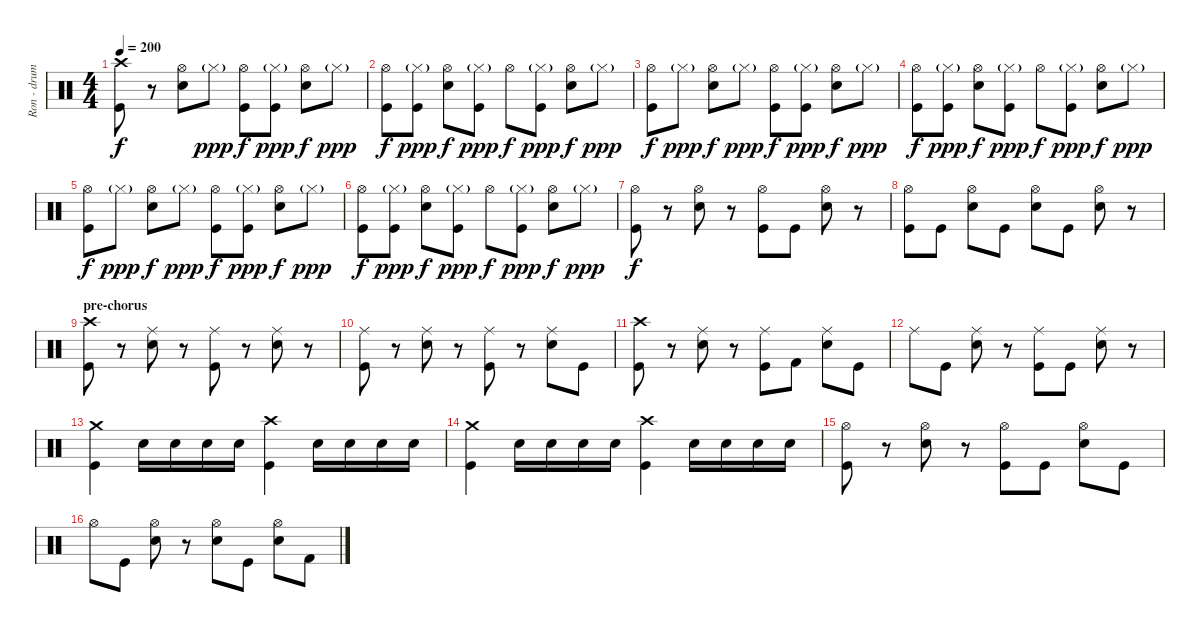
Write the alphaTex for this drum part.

\track ("Ron - drums" "Ron - drum") {instrument percussion}
\staff {score}
\articulation defaults
\ts (4 4)
\tempo 200
\clef neutral
\ks c
("Crash high (hit)" "Kick (hit)").8{dy f} r.8 ("Hi-Hat (open)" "Snare (hit) 2").8 "Hi-Hat (closed)"{g}.8{dy ppp} ("Hi-Hat (open)" "Kick (hit)").8{dy f} ("Hi-Hat (closed)"{g} "Kick (hit)").8{dy ppp} ("Hi-Hat (open)" "Snare (hit) 2").8{dy f} "Hi-Hat (closed)"{g}.8{dy ppp} |
("Hi-Hat (open)" "Kick (hit)").8{dy f} ("Hi-Hat (closed)"{g} "Kick (hit)").8{dy ppp} ("Hi-Hat (open)" "Snare (hit) 2").8{dy f} ("Hi-Hat (closed)"{g} "Kick (hit)").8{dy ppp} "Hi-Hat (open)".8{dy f} ("Hi-Hat (closed)"{g} "Kick (hit)").8{dy ppp} ("Hi-Hat (open)" "Snare (hit) 2").8{dy f} "Hi-Hat (closed)"{g}.8{dy ppp} |
("Hi-Hat (open)" "Kick (hit)").8{dy f} "Hi-Hat (closed)"{g}.8{dy ppp} ("Hi-Hat (open)" "Snare (hit) 2").8{dy f} "Hi-Hat (closed)"{g}.8{dy ppp} ("Hi-Hat (open)" "Kick (hit)").8{dy f} ("Hi-Hat (closed)"{g} "Kick (hit)").8{dy ppp} ("Hi-Hat (open)" "Snare (hit) 2").8{dy f} "Hi-Hat (closed)"{g}.8{dy ppp} |
("Hi-Hat (open)" "Kick (hit)").8{dy f} ("Hi-Hat (closed)"{g} "Kick (hit)").8{dy ppp} ("Hi-Hat (open)" "Snare (hit) 2").8{dy f} ("Hi-Hat (closed)"{g} "Kick (hit)").8{dy ppp} "Hi-Hat (open)".8{dy f} ("Hi-Hat (closed)"{g} "Kick (hit)").8{dy ppp} ("Hi-Hat (open)" "Snare (hit) 2").8{dy f} "Hi-Hat (closed)"{g}.8{dy ppp} |
("Hi-Hat (open)" "Kick (hit)").8{dy f} "Hi-Hat (closed)"{g}.8{dy ppp} ("Hi-Hat (open)" "Snare (hit) 2").8{dy f} "Hi-Hat (closed)"{g}.8{dy ppp} ("Hi-Hat (open)" "Kick (hit)").8{dy f} ("Hi-Hat (closed)"{g} "Kick (hit)").8{dy ppp} ("Hi-Hat (open)" "Snare (hit) 2").8{dy f} "Hi-Hat (closed)"{g}.8{dy ppp} |
("Hi-Hat (open)" "Kick (hit)").8{dy f} ("Hi-Hat (closed)"{g} "Kick (hit)").8{dy ppp} ("Hi-Hat (open)" "Snare (hit) 2").8{dy f} ("Hi-Hat (closed)"{g} "Kick (hit)").8{dy ppp} "Hi-Hat (open)".8{dy f} ("Hi-Hat (closed)"{g} "Kick (hit)").8{dy ppp} ("Hi-Hat (open)" "Snare (hit) 2").8{dy f} "Hi-Hat (closed)"{g}.8{dy ppp} |
("Hi-Hat (open)" "Kick (hit)").8{dy f} r.8 ("Hi-Hat (open)" "Snare (hit) 2").8 r.8 ("Hi-Hat (open)" "Kick (hit)").8 "Kick (hit)".8 ("Hi-Hat (open)" "Snare (hit) 2").8 r.8 |
("Hi-Hat (open)" "Kick (hit)").8 "Kick (hit)".8 ("Hi-Hat (open)" "Snare (hit) 2").8 "Kick (hit)".8 ("Hi-Hat (open)" "Snare (hit) 2").8 "Kick (hit)".8 ("Hi-Hat (open)" "Snare (hit) 2").8 r.8 |
\section ("" "pre-chorus")
("Crash high (hit)" "Kick (hit)").8 r.8 ("Ride (middle)" "Snare (hit) 2").8 r.8 ("Ride (middle)" "Kick (hit)").8 r.8 ("Ride (middle)" "Snare (hit) 2").8 r.8 |
("Ride (middle)" "Kick (hit)").8 r.8 ("Ride (middle)" "Snare (hit) 2").8 r.8 ("Ride (middle)" "Kick (hit)").8 r.8 ("Ride (middle)" "Snare (hit) 2").8 "Kick (hit)".8 |
("Crash high (hit)" "Kick (hit)").8 r.8 ("Ride (middle)" "Snare (hit) 2").8 r.8 ("Ride (middle)" "Kick (hit)").8 "Kick (hit) 2".8 ("Ride (middle)" "Snare (hit) 2").8 "Kick (hit)".8 |
"Ride (middle)".8 "Kick (hit)".8 ("Ride (middle)" "Snare (hit) 2").8 r.8 ("Ride (middle)" "Kick (hit)").8 "Kick (hit)".8 ("Ride (middle)" "Snare (hit) 2").8 r.8 |
("Crash medium (hit)" "Kick (hit)").4 "Snare (hit) 2".16 "Snare (hit) 2".16 "Snare (hit) 2".16 "Snare (hit) 2".16 ("Crash high (hit)" "Kick (hit)").4 "Snare (hit) 2".16 "Snare (hit) 2".16 "Snare (hit) 2".16 "Snare (hit) 2".16 |
("Crash medium (hit)" "Kick (hit)").4 "Snare (hit) 2".16 "Snare (hit) 2".16 "Snare (hit) 2".16 "Snare (hit) 2".16 ("Crash high (hit)" "Kick (hit)").4 "Snare (hit) 2".16 "Snare (hit) 2".16 "Snare (hit) 2".16 "Snare (hit) 2".16 |
("Hi-Hat (open)" "Kick (hit)").8 r.8 ("Hi-Hat (open)" "Snare (hit) 2").8 r.8 ("Hi-Hat (open)" "Kick (hit)").8 "Kick (hit)".8 ("Hi-Hat (open)" "Snare (hit) 2").8 "Kick (hit)".8 |
"Hi-Hat (open)".8 "Kick (hit)".8 ("Hi-Hat (open)" "Snare (hit) 2").8 r.8 ("Hi-Hat (open)" "Snare (hit) 2").8 "Kick (hit)".8 ("Hi-Hat (open)" "Snare (hit) 2").8 "Kick (hit) 2".8
